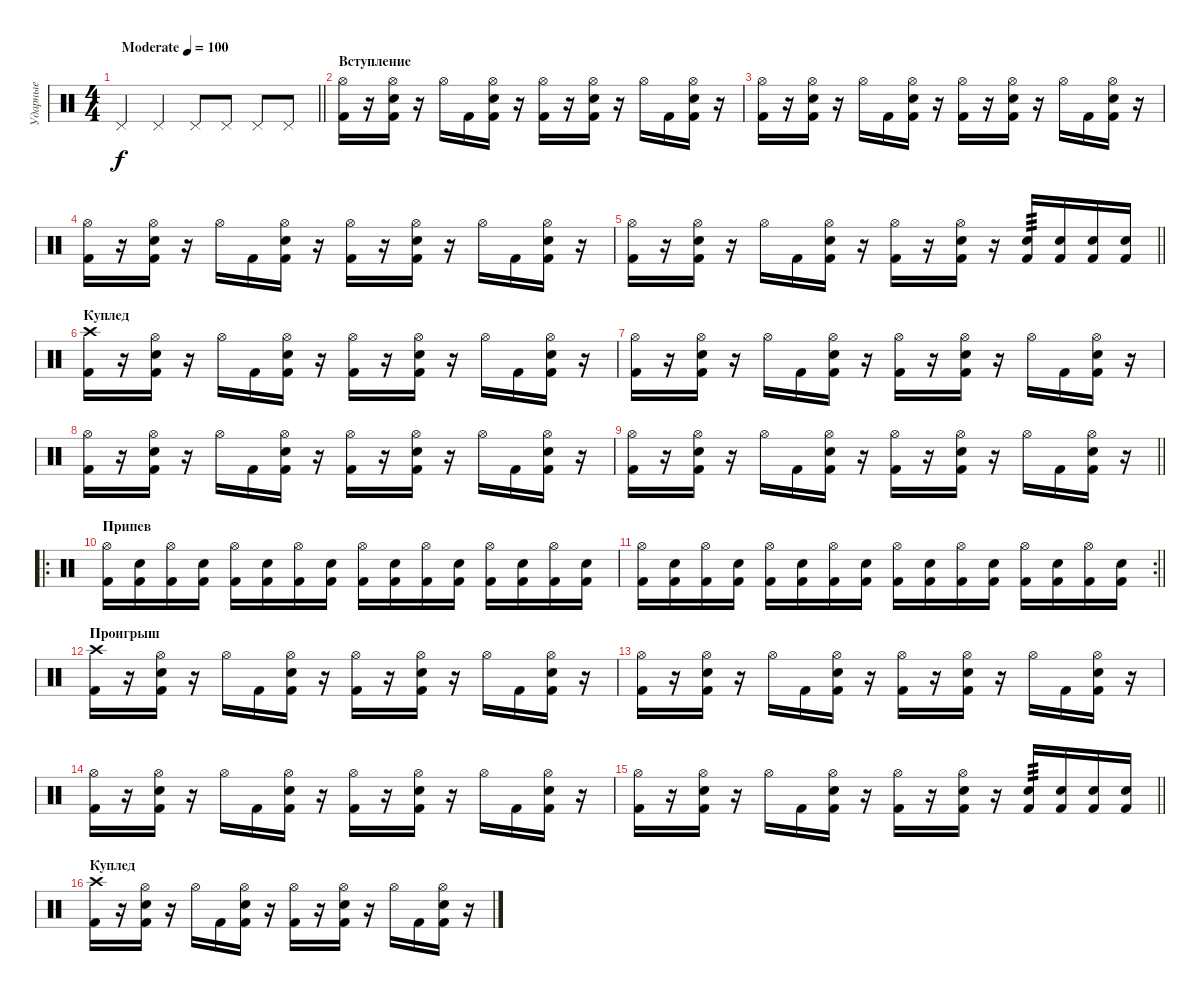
\track ("Ударные" "Ударные") {instrument percussion}
\staff {score}
\articulation defaults
\ts (4 4)
\tempo (100 "Moderate")
\clef neutral
\barLineRight lightlight
\ks c "Pedal Hi-Hat (hit)".4{dy f} "Pedal Hi-Hat (hit)".4 "Pedal Hi-Hat (hit)".8 "Pedal Hi-Hat (hit)".8 "Pedal Hi-Hat (hit)".8 "Pedal Hi-Hat (hit)".8
|
\section ("" "Вступление")
("Kick (hit) 2" "Hi-Hat (open)").16 r.16 ("Kick (hit) 2" "Electric Snare (hit)" "Hi-Hat (open)").16 r.16 "Hi-Hat (open)".16 "Kick (hit) 2".16 ("Kick (hit) 2" "Electric Snare (hit)" "Hi-Hat (open)").16 r.16 ("Kick (hit) 2" "Hi-Hat (open)").16 r.16 ("Kick (hit) 2" "Electric Snare (hit)" "Hi-Hat (open)").16 r.16 "Hi-Hat (open)".16 "Kick (hit) 2".16 ("Kick (hit) 2" "Electric Snare (hit)" "Hi-Hat (open)").16 r.16 |
("Kick (hit) 2" "Hi-Hat (open)").16 r.16 ("Kick (hit) 2" "Electric Snare (hit)" "Hi-Hat (open)").16 r.16 "Hi-Hat (open)".16 "Kick (hit) 2".16 ("Kick (hit) 2" "Electric Snare (hit)" "Hi-Hat (open)").16 r.16 ("Kick (hit) 2" "Hi-Hat (open)").16 r.16 ("Kick (hit) 2" "Electric Snare (hit)" "Hi-Hat (open)").16 r.16 "Hi-Hat (open)".16 "Kick (hit) 2".16 ("Kick (hit) 2" "Electric Snare (hit)" "Hi-Hat (open)").16 r.16 |
("Kick (hit) 2" "Hi-Hat (open)").16 r.16 ("Kick (hit) 2" "Electric Snare (hit)" "Hi-Hat (open)").16 r.16 "Hi-Hat (open)".16 "Kick (hit) 2".16 ("Kick (hit) 2" "Electric Snare (hit)" "Hi-Hat (open)").16 r.16 ("Kick (hit) 2" "Hi-Hat (open)").16 r.16 ("Kick (hit) 2" "Electric Snare (hit)" "Hi-Hat (open)").16 r.16 "Hi-Hat (open)".16 "Kick (hit) 2".16 ("Kick (hit) 2" "Electric Snare (hit)" "Hi-Hat (open)").16 r.16 |
\barLineRight lightlight
("Kick (hit) 2" "Hi-Hat (open)").16 r.16 ("Kick (hit) 2" "Electric Snare (hit)" "Hi-Hat (open)").16 r.16 "Hi-Hat (open)".16 "Kick (hit) 2".16 ("Kick (hit) 2" "Electric Snare (hit)" "Hi-Hat (open)").16 r.16 ("Kick (hit) 2" "Hi-Hat (open)").16 r.16 ("Kick (hit) 2" "Electric Snare (hit)" "Hi-Hat (open)").16 r.16 ("Kick (hit) 2" "Electric Snare (hit)").16{tp 3} ("Kick (hit) 2" "Electric Snare (hit)").16 ("Kick (hit) 2" "Electric Snare (hit)").16 ("Kick (hit) 2" "Electric Snare (hit)").16 |
\section ("" "Куплед")
("Kick (hit) 2" "Crash high (hit)").16 r.16 ("Kick (hit) 2" "Electric Snare (hit)" "Hi-Hat (open)").16 r.16 "Hi-Hat (open)".16 "Kick (hit) 2".16 ("Kick (hit) 2" "Electric Snare (hit)" "Hi-Hat (open)").16 r.16 ("Kick (hit) 2" "Hi-Hat (open)").16 r.16 ("Kick (hit) 2" "Electric Snare (hit)" "Hi-Hat (open)").16 r.16 "Hi-Hat (open)".16 "Kick (hit) 2".16 ("Kick (hit) 2" "Electric Snare (hit)" "Hi-Hat (open)").16 r.16 |
("Kick (hit) 2" "Hi-Hat (open)").16 r.16 ("Kick (hit) 2" "Electric Snare (hit)" "Hi-Hat (open)").16 r.16 "Hi-Hat (open)".16 "Kick (hit) 2".16 ("Kick (hit) 2" "Electric Snare (hit)" "Hi-Hat (open)").16 r.16 ("Kick (hit) 2" "Hi-Hat (open)").16 r.16 ("Kick (hit) 2" "Electric Snare (hit)" "Hi-Hat (open)").16 r.16 "Hi-Hat (open)".16 "Kick (hit) 2".16 ("Kick (hit) 2" "Electric Snare (hit)" "Hi-Hat (open)").16 r.16 |
("Kick (hit) 2" "Hi-Hat (open)").16 r.16 ("Kick (hit) 2" "Electric Snare (hit)" "Hi-Hat (open)").16 r.16 "Hi-Hat (open)".16 "Kick (hit) 2".16 ("Kick (hit) 2" "Electric Snare (hit)" "Hi-Hat (open)").16 r.16 ("Kick (hit) 2" "Hi-Hat (open)").16 r.16 ("Kick (hit) 2" "Electric Snare (hit)" "Hi-Hat (open)").16 r.16 "Hi-Hat (open)".16 "Kick (hit) 2".16 ("Kick (hit) 2" "Electric Snare (hit)" "Hi-Hat (open)").16 r.16 |
\barLineRight lightlight
("Kick (hit) 2" "Hi-Hat (open)").16 r.16 ("Kick (hit) 2" "Electric Snare (hit)" "Hi-Hat (open)").16 r.16 "Hi-Hat (open)".16 "Kick (hit) 2".16 ("Kick (hit) 2" "Electric Snare (hit)" "Hi-Hat (open)").16 r.16 ("Kick (hit) 2" "Hi-Hat (open)").16 r.16 ("Kick (hit) 2" "Electric Snare (hit)" "Hi-Hat (open)").16 r.16 "Hi-Hat (open)".16 "Kick (hit) 2".16 ("Kick (hit) 2" "Electric Snare (hit)" "Hi-Hat (open)").16 r.16 |
\ro
\section ("" "Припев")
("Kick (hit) 2" "Hi-Hat (open)").16 ("Electric Snare (hit)" "Kick (hit) 2").16 ("Kick (hit) 2" "Hi-Hat (open)").16 ("Electric Snare (hit)" "Kick (hit) 2").16 ("Kick (hit) 2" "Hi-Hat (open)").16 ("Electric Snare (hit)" "Kick (hit) 2").16 ("Kick (hit) 2" "Hi-Hat (open)").16 ("Electric Snare (hit)" "Kick (hit) 2").16 ("Kick (hit) 2" "Hi-Hat (open)").16 ("Electric Snare (hit)" "Kick (hit) 2").16 ("Kick (hit) 2" "Hi-Hat (open)").16 ("Electric Snare (hit)" "Kick (hit) 2").16 ("Kick (hit) 2" "Hi-Hat (open)").16 ("Electric Snare (hit)" "Kick (hit) 2").16 ("Kick (hit) 2" "Hi-Hat (open)").16 ("Electric Snare (hit)" "Kick (hit) 2").16 |
\rc 2
\barLineRight lightlight
("Kick (hit) 2" "Hi-Hat (open)").16 ("Electric Snare (hit)" "Kick (hit) 2").16 ("Kick (hit) 2" "Hi-Hat (open)").16 ("Electric Snare (hit)" "Kick (hit) 2").16 ("Kick (hit) 2" "Hi-Hat (open)").16 ("Electric Snare (hit)" "Kick (hit) 2").16 ("Kick (hit) 2" "Hi-Hat (open)").16 ("Electric Snare (hit)" "Kick (hit) 2").16 ("Kick (hit) 2" "Hi-Hat (open)").16 ("Electric Snare (hit)" "Kick (hit) 2").16 ("Kick (hit) 2" "Hi-Hat (open)").16 ("Electric Snare (hit)" "Kick (hit) 2").16 ("Kick (hit) 2" "Hi-Hat (open)").16 ("Electric Snare (hit)" "Kick (hit) 2").16 ("Kick (hit) 2" "Hi-Hat (open)").16 ("Electric Snare (hit)" "Kick (hit) 2").16 |
\section ("" "Проигрыш")
("Kick (hit) 2" "Crash high (hit)").16 r.16 ("Kick (hit) 2" "Electric Snare (hit)" "Hi-Hat (open)").16 r.16 "Hi-Hat (open)".16 "Kick (hit) 2".16 ("Kick (hit) 2" "Electric Snare (hit)" "Hi-Hat (open)").16 r.16 ("Kick (hit) 2" "Hi-Hat (open)").16 r.16 ("Kick (hit) 2" "Electric Snare (hit)" "Hi-Hat (open)").16 r.16 "Hi-Hat (open)".16 "Kick (hit) 2".16 ("Kick (hit) 2" "Electric Snare (hit)" "Hi-Hat (open)").16 r.16 |
("Kick (hit) 2" "Hi-Hat (open)").16 r.16 ("Kick (hit) 2" "Electric Snare (hit)" "Hi-Hat (open)").16 r.16 "Hi-Hat (open)".16 "Kick (hit) 2".16 ("Kick (hit) 2" "Electric Snare (hit)" "Hi-Hat (open)").16 r.16 ("Kick (hit) 2" "Hi-Hat (open)").16 r.16 ("Kick (hit) 2" "Electric Snare (hit)" "Hi-Hat (open)").16 r.16 "Hi-Hat (open)".16 "Kick (hit) 2".16 ("Kick (hit) 2" "Electric Snare (hit)" "Hi-Hat (open)").16 r.16 |
("Kick (hit) 2" "Hi-Hat (open)").16 r.16 ("Kick (hit) 2" "Electric Snare (hit)" "Hi-Hat (open)").16 r.16 "Hi-Hat (open)".16 "Kick (hit) 2".16 ("Kick (hit) 2" "Electric Snare (hit)" "Hi-Hat (open)").16 r.16 ("Kick (hit) 2" "Hi-Hat (open)").16 r.16 ("Kick (hit) 2" "Electric Snare (hit)" "Hi-Hat (open)").16 r.16 "Hi-Hat (open)".16 "Kick (hit) 2".16 ("Kick (hit) 2" "Electric Snare (hit)" "Hi-Hat (open)").16 r.16 |
\barLineRight lightlight
("Kick (hit) 2" "Hi-Hat (open)").16 r.16 ("Kick (hit) 2" "Electric Snare (hit)" "Hi-Hat (open)").16 r.16 "Hi-Hat (open)".16 "Kick (hit) 2".16 ("Kick (hit) 2" "Electric Snare (hit)" "Hi-Hat (open)").16 r.16 ("Kick (hit) 2" "Hi-Hat (open)").16 r.16 ("Kick (hit) 2" "Electric Snare (hit)" "Hi-Hat (open)").16 r.16 ("Kick (hit) 2" "Electric Snare (hit)").16{tp 3} ("Kick (hit) 2" "Electric Snare (hit)").16 ("Kick (hit) 2" "Electric Snare (hit)").16 ("Kick (hit) 2" "Electric Snare (hit)").16 |
\section ("" "Куплед")
("Kick (hit) 2" "Crash high (hit)").16 r.16 ("Kick (hit) 2" "Electric Snare (hit)" "Hi-Hat (open)").16 r.16 "Hi-Hat (open)".16 "Kick (hit) 2".16 ("Kick (hit) 2" "Electric Snare (hit)" "Hi-Hat (open)").16 r.16 ("Kick (hit) 2" "Hi-Hat (open)").16 r.16 ("Kick (hit) 2" "Electric Snare (hit)" "Hi-Hat (open)").16 r.16 "Hi-Hat (open)".16 "Kick (hit) 2".16 ("Kick (hit) 2" "Electric Snare (hit)" "Hi-Hat (open)").16 r.16
